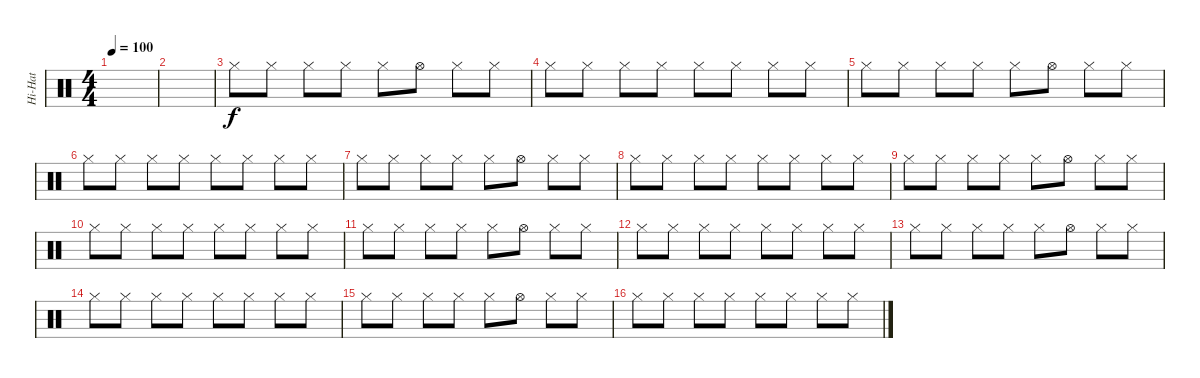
\track ("Hi-Hat" "Hi-Hat") {instrument percussion}
\staff {score}
\articulation defaults
\ts (4 4)
\tempo 100
\clef neutral
\ks c
|
|
"Hi-Hat (closed)".8 "Hi-Hat (closed)".8 "Hi-Hat (closed)".8 "Hi-Hat (closed)".8 "Hi-Hat (closed)".8 "Hi-Hat (open)".8 "Hi-Hat (closed)".8 "Hi-Hat (closed)".8 |
"Hi-Hat (closed)".8 "Hi-Hat (closed)".8 "Hi-Hat (closed)".8 "Hi-Hat (closed)".8 "Hi-Hat (closed)".8 "Hi-Hat (closed)".8 "Hi-Hat (closed)".8 "Hi-Hat (closed)".8 |
"Hi-Hat (closed)".8 "Hi-Hat (closed)".8 "Hi-Hat (closed)".8 "Hi-Hat (closed)".8 "Hi-Hat (closed)".8 "Hi-Hat (open)".8 "Hi-Hat (closed)".8 "Hi-Hat (closed)".8 |
"Hi-Hat (closed)".8 "Hi-Hat (closed)".8 "Hi-Hat (closed)".8 "Hi-Hat (closed)".8 "Hi-Hat (closed)".8 "Hi-Hat (closed)".8 "Hi-Hat (closed)".8 "Hi-Hat (closed)".8 |
"Hi-Hat (closed)".8 "Hi-Hat (closed)".8 "Hi-Hat (closed)".8 "Hi-Hat (closed)".8 "Hi-Hat (closed)".8 "Hi-Hat (open)".8 "Hi-Hat (closed)".8 "Hi-Hat (closed)".8 |
"Hi-Hat (closed)".8 "Hi-Hat (closed)".8 "Hi-Hat (closed)".8 "Hi-Hat (closed)".8 "Hi-Hat (closed)".8 "Hi-Hat (closed)".8 "Hi-Hat (closed)".8 "Hi-Hat (closed)".8 |
"Hi-Hat (closed)".8 "Hi-Hat (closed)".8 "Hi-Hat (closed)".8 "Hi-Hat (closed)".8 "Hi-Hat (closed)".8 "Hi-Hat (open)".8 "Hi-Hat (closed)".8 "Hi-Hat (closed)".8 |
"Hi-Hat (closed)".8 "Hi-Hat (closed)".8 "Hi-Hat (closed)".8 "Hi-Hat (closed)".8 "Hi-Hat (closed)".8 "Hi-Hat (closed)".8 "Hi-Hat (closed)".8 "Hi-Hat (closed)".8 |
"Hi-Hat (closed)".8 "Hi-Hat (closed)".8 "Hi-Hat (closed)".8 "Hi-Hat (closed)".8 "Hi-Hat (closed)".8 "Hi-Hat (open)".8 "Hi-Hat (closed)".8 "Hi-Hat (closed)".8 |
"Hi-Hat (closed)".8 "Hi-Hat (closed)".8 "Hi-Hat (closed)".8 "Hi-Hat (closed)".8 "Hi-Hat (closed)".8 "Hi-Hat (closed)".8 "Hi-Hat (closed)".8 "Hi-Hat (closed)".8 |
"Hi-Hat (closed)".8 "Hi-Hat (closed)".8 "Hi-Hat (closed)".8 "Hi-Hat (closed)".8 "Hi-Hat (closed)".8 "Hi-Hat (open)".8 "Hi-Hat (closed)".8 "Hi-Hat (closed)".8 |
"Hi-Hat (closed)".8 "Hi-Hat (closed)".8 "Hi-Hat (closed)".8 "Hi-Hat (closed)".8 "Hi-Hat (closed)".8 "Hi-Hat (closed)".8 "Hi-Hat (closed)".8 "Hi-Hat (closed)".8 |
"Hi-Hat (closed)".8 "Hi-Hat (closed)".8 "Hi-Hat (closed)".8 "Hi-Hat (closed)".8 "Hi-Hat (closed)".8 "Hi-Hat (open)".8 "Hi-Hat (closed)".8 "Hi-Hat (closed)".8 |
"Hi-Hat (closed)".8 "Hi-Hat (closed)".8 "Hi-Hat (closed)".8 "Hi-Hat (closed)".8 "Hi-Hat (closed)".8 "Hi-Hat (closed)".8 "Hi-Hat (closed)".8 "Hi-Hat (closed)".8
